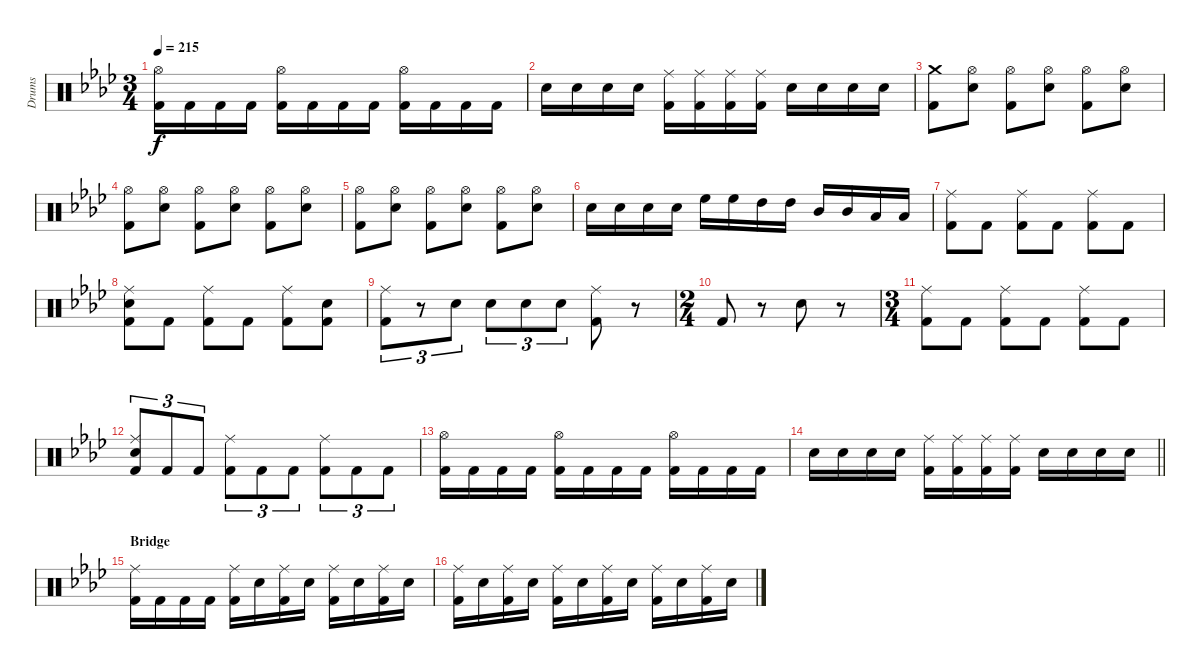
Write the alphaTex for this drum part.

\bracketExtendMode groupsimilarinstruments
\otherSystemsTrackNameOrientation horizontal
\track ("Guyot Begin-Benoit" "Drums") {instrument percussion}
\staff {score}
\articulation defaults
\ts (3 4)
\tempo 215
\clef neutral
\ks ab
("Hi-Hat (open)"{acc forcenatural} "Kick (hit) 2"{acc forcenatural}).16{dy f beam Down} "Kick (hit) 2"{acc forcenatural}.16{beam Down} "Kick (hit) 2"{acc forcenatural}.16{beam Down} "Kick (hit) 2"{acc forcenatural}.16{beam Down} ("Hi-Hat (open)"{acc forcenatural} "Kick (hit) 2"{acc forcenatural}).16{beam Down} "Kick (hit) 2"{acc forcenatural}.16{beam Down} "Kick (hit) 2"{acc forcenatural}.16{beam Down} "Kick (hit) 2"{acc forcenatural}.16{beam Down} ("Hi-Hat (open)"{acc forcenatural} "Kick (hit) 2"{acc forcenatural}).16{beam Down} "Kick (hit) 2"{acc forcenatural}.16{beam Down} "Kick (hit) 2"{acc forcenatural}.16{beam Down} "Kick (hit) 2"{acc forcenatural}.16{beam Down} |
"Snare (hit) 2"{acc forcenatural}.16{beam Down} "Snare (hit) 2"{acc forcenatural}.16{beam Down} "Snare (hit) 2"{acc forcenatural}.16{beam Down} "Snare (hit) 2"{acc forcenatural}.16{beam Down} ("Ride (middle)"{acc forcenatural} "Kick (hit) 2"{acc forcenatural}).16{beam Down} ("Ride (middle)"{acc forcenatural} "Kick (hit) 2"{acc forcenatural}).16{beam Down} ("Ride (middle)"{acc forcenatural} "Kick (hit) 2"{acc forcenatural}).16{beam Down} ("Ride (middle)"{acc forcenatural} "Kick (hit) 2"{acc forcenatural}).16{beam Down} "Snare (hit) 2"{acc forcenatural}.16{beam Down} "Snare (hit) 2"{acc forcenatural}.16{beam Down} "Snare (hit) 2"{acc forcenatural}.16{beam Down} "Snare (hit) 2"{acc forcenatural}.16{beam Down} |
("Crash medium (hit)"{acc forcenatural} "Kick (hit) 2"{acc forcenatural}).8{beam Down} ("Hi-Hat (open)"{acc forcenatural} "Snare (hit) 2"{acc forcenatural}).8{beam Down} ("Hi-Hat (open)"{acc forcenatural} "Kick (hit) 2"{acc forcenatural}).8{beam Down} ("Hi-Hat (open)"{acc forcenatural} "Snare (hit) 2"{acc forcenatural}).8{beam Down} ("Hi-Hat (open)"{acc forcenatural} "Kick (hit) 2"{acc forcenatural}).8{beam Down} ("Hi-Hat (open)"{acc forcenatural} "Snare (hit) 2"{acc forcenatural}).8{beam Down} |
("Hi-Hat (open)"{acc forcenatural} "Kick (hit) 2"{acc forcenatural}).8{beam Down} ("Hi-Hat (open)"{acc forcenatural} "Snare (hit) 2"{acc forcenatural}).8{beam Down} ("Hi-Hat (open)"{acc forcenatural} "Kick (hit) 2"{acc forcenatural}).8{beam Down} ("Hi-Hat (open)"{acc forcenatural} "Snare (hit) 2"{acc forcenatural}).8{beam Down} ("Hi-Hat (open)"{acc forcenatural} "Kick (hit) 2"{acc forcenatural}).8{beam Down} ("Hi-Hat (open)"{acc forcenatural} "Snare (hit) 2"{acc forcenatural}).8{beam Down} |
("Hi-Hat (open)"{acc forcenatural} "Kick (hit) 2"{acc forcenatural}).8{beam Down} ("Hi-Hat (open)"{acc forcenatural} "Snare (hit) 2"{acc forcenatural}).8{beam Down} ("Hi-Hat (open)"{acc forcenatural} "Kick (hit) 2"{acc forcenatural}).8{beam Down} ("Hi-Hat (open)"{acc forcenatural} "Snare (hit) 2"{acc forcenatural}).8{beam Down} ("Hi-Hat (open)"{acc forcenatural} "Kick (hit) 2"{acc forcenatural}).8{beam Down} ("Hi-Hat (open)"{acc forcenatural} "Snare (hit) 2"{acc forcenatural}).8{beam Down} |
"Snare (hit) 2"{acc forcenatural}.16{beam Down} "Snare (hit) 2"{acc forcenatural}.16{beam Down} "Snare (hit) 2"{acc forcenatural}.16{beam Down} "Snare (hit) 2"{acc forcenatural}.16{beam Down} "High Floor Tom (hit)"{acc forcenatural}.16{beam Down} "High Floor Tom (hit)"{acc forcenatural}.16{beam Down} "High Tom (hit)"{acc forcenatural}.16{beam Down} "High Tom (hit)"{acc forcenatural}.16{beam Down} "Mid Tom (hit)"{acc forcenatural}.16{beam Up} "Mid Tom (hit)"{acc forcenatural}.16{beam Up} "Low Tom (hit)"{acc forcenatural}.16{beam Up} "Low Tom (hit)"{acc forcenatural}.16{beam Up} |
("Ride (middle)"{acc forcenatural} "Kick (hit) 2"{acc forcenatural}).8{beam Down} "Kick (hit) 2"{acc forcenatural}.8{beam Down} ("Ride (middle)"{acc forcenatural} "Kick (hit) 2"{acc forcenatural}).8{beam Down} "Kick (hit) 2"{acc forcenatural}.8{beam Down} ("Ride (middle)"{acc forcenatural} "Kick (hit) 2"{acc forcenatural}).8{beam Down} "Kick (hit) 2"{acc forcenatural}.8{beam Down} |
("Ride (middle)"{acc forcenatural} "Snare (hit) 2"{acc forcenatural} "Kick (hit) 2"{acc forcenatural}).8{beam Down} "Kick (hit) 2"{acc forcenatural}.8{beam Down} ("Ride (middle)"{acc forcenatural} "Kick (hit) 2"{acc forcenatural}).8{beam Down} "Kick (hit) 2"{acc forcenatural}.8{beam Down} ("Ride (middle)"{acc forcenatural} "Kick (hit) 2"{acc forcenatural}).8{beam Down} ("Snare (hit) 2"{acc forcenatural} "Kick (hit) 2"{acc forcenatural}).8{beam Down} |
("Ride (middle)"{acc forcenatural} "Kick (hit) 2"{acc forcenatural}).8{tu (3 2) beam Down} r.8{tu (3 2) beam Down} "Snare (hit) 2"{acc forcenatural}.8{tu (3 2) beam Down} "Snare (hit) 2"{acc forcenatural}.8{tu (3 2) beam Down} "Snare (hit) 2"{acc forcenatural}.8{tu (3 2) beam Down} "Snare (hit) 2"{acc forcenatural}.8{tu (3 2) beam Down} ("Ride (middle)"{acc forcenatural} "Kick (hit) 2"{acc forcenatural}).8{beam Down} r.8{beam Down} |
\ts (2 4)
\beaming (8 2 2 2 2)
"Kick (hit) 2"{acc forcenatural}.8{beam Up} r.8{beam Up} "Snare (hit) 2"{acc forcenatural}.8{beam Down} r.8{beam Down} |
\ts (3 4)
\beaming (8 2 2 2 2)
("Ride (middle)"{acc forcenatural} "Kick (hit) 2"{acc forcenatural}).8{beam Down} "Kick (hit) 2"{acc forcenatural}.8{beam Down} ("Ride (middle)"{acc forcenatural} "Kick (hit) 2"{acc forcenatural}).8{beam Down} "Kick (hit) 2"{acc forcenatural}.8{beam Down} ("Ride (middle)"{acc forcenatural} "Kick (hit) 2"{acc forcenatural}).8{beam Down} "Kick (hit) 2"{acc forcenatural}.8{beam Down} |
("Ride (middle)"{acc forcenatural} "Snare (hit) 2"{acc forcenatural} "Kick (hit) 2"{acc forcenatural}).8{tu (3 2) beam Up} "Kick (hit) 2"{acc forcenatural}.8{tu (3 2) beam Up} "Kick (hit) 2"{acc forcenatural}.8{tu (3 2) beam Up} ("Ride (middle)"{acc forcenatural} "Kick (hit) 2"{acc forcenatural}).8{tu (3 2) beam Down} "Kick (hit) 2"{acc forcenatural}.8{tu (3 2) beam Down} "Kick (hit) 2"{acc forcenatural}.8{tu (3 2) beam Down} ("Ride (middle)"{acc forcenatural} "Kick (hit) 2"{acc forcenatural}).8{tu (3 2) beam Down} "Kick (hit) 2"{acc forcenatural}.8{tu (3 2) beam Down} "Kick (hit) 2"{acc forcenatural}.8{tu (3 2) beam Down} |
("Hi-Hat (open)"{acc forcenatural} "Kick (hit) 2"{acc forcenatural}).16{beam Down} "Kick (hit) 2"{acc forcenatural}.16{beam Down} "Kick (hit) 2"{acc forcenatural}.16{beam Down} "Kick (hit) 2"{acc forcenatural}.16{beam Down} ("Hi-Hat (open)"{acc forcenatural} "Kick (hit) 2"{acc forcenatural}).16{beam Down} "Kick (hit) 2"{acc forcenatural}.16{beam Down} "Kick (hit) 2"{acc forcenatural}.16{beam Down} "Kick (hit) 2"{acc forcenatural}.16{beam Down} ("Hi-Hat (open)"{acc forcenatural} "Kick (hit) 2"{acc forcenatural}).16{beam Down} "Kick (hit) 2"{acc forcenatural}.16{beam Down} "Kick (hit) 2"{acc forcenatural}.16{beam Down} "Kick (hit) 2"{acc forcenatural}.16{beam Down} |
\barLineRight lightlight "Snare (hit) 2"{acc forcenatural}.16{beam Down} "Snare (hit) 2"{acc forcenatural}.16{beam Down} "Snare (hit) 2"{acc forcenatural}.16{beam Down} "Snare (hit) 2"{acc forcenatural}.16{beam Down}
("Ride (middle)"{acc forcenatural} "Kick (hit) 2"{acc forcenatural}).16{beam Down} ("Ride (middle)"{acc forcenatural} "Kick (hit) 2"{acc forcenatural}).16{beam Down} ("Ride (middle)"{acc forcenatural} "Kick (hit) 2"{acc forcenatural}).16{beam Down} ("Ride (middle)"{acc forcenatural} "Kick (hit) 2"{acc forcenatural}).16{beam Down} "Snare (hit) 2"{acc forcenatural}.16{beam Down} "Snare (hit) 2"{acc forcenatural}.16{beam Down} "Snare (hit) 2"{acc forcenatural}.16{beam Down} "Snare (hit) 2"{acc forcenatural}.16{beam Down} |
\section ("" "Bridge")
("Ride (middle)"{acc forcenatural} "Kick (hit) 2"{acc forcenatural}).16{beam Down} "Kick (hit) 2"{acc forcenatural}.16{beam Down} "Kick (hit) 2"{acc forcenatural}.16{beam Down} "Kick (hit) 2"{acc forcenatural}.16{beam Down} ("Ride (middle)"{acc forcenatural} "Kick (hit) 2"{acc forcenatural}).16{beam Down} "Snare (hit) 2"{acc forcenatural}.16{beam Down} ("Ride (middle)"{acc forcenatural} "Kick (hit) 2"{acc forcenatural}).16{beam Down} "Snare (hit) 2"{acc forcenatural}.16{beam Down} ("Ride (middle)"{acc forcenatural} "Kick (hit) 2"{acc forcenatural}).16{beam Down} "Snare (hit) 2"{acc forcenatural}.16{beam Down} ("Ride (middle)"{acc forcenatural} "Kick (hit) 2"{acc forcenatural}).16{beam Down} "Snare (hit) 2"{acc forcenatural}.16{beam Down} |
("Ride (middle)"{acc forcenatural} "Kick (hit) 2"{acc forcenatural}).16{beam Down} "Snare (hit) 2"{acc forcenatural}.16{beam Down} ("Ride (middle)"{acc forcenatural} "Kick (hit) 2"{acc forcenatural}).16{beam Down} "Snare (hit) 2"{acc forcenatural}.16{beam Down} ("Ride (middle)"{acc forcenatural} "Kick (hit) 2"{acc forcenatural}).16{beam Down} "Snare (hit) 2"{acc forcenatural}.16{beam Down} ("Ride (middle)"{acc forcenatural} "Kick (hit) 2"{acc forcenatural}).16{beam Down} "Snare (hit) 2"{acc forcenatural}.16{beam Down} ("Ride (middle)"{acc forcenatural} "Kick (hit) 2"{acc forcenatural}).16{beam Down} "Snare (hit) 2"{acc forcenatural}.16{beam Down} ("Ride (middle)"{acc forcenatural} "Kick (hit) 2"{acc forcenatural}).16{beam Down} "Snare (hit) 2"{acc forcenatural}.16{beam Down}
